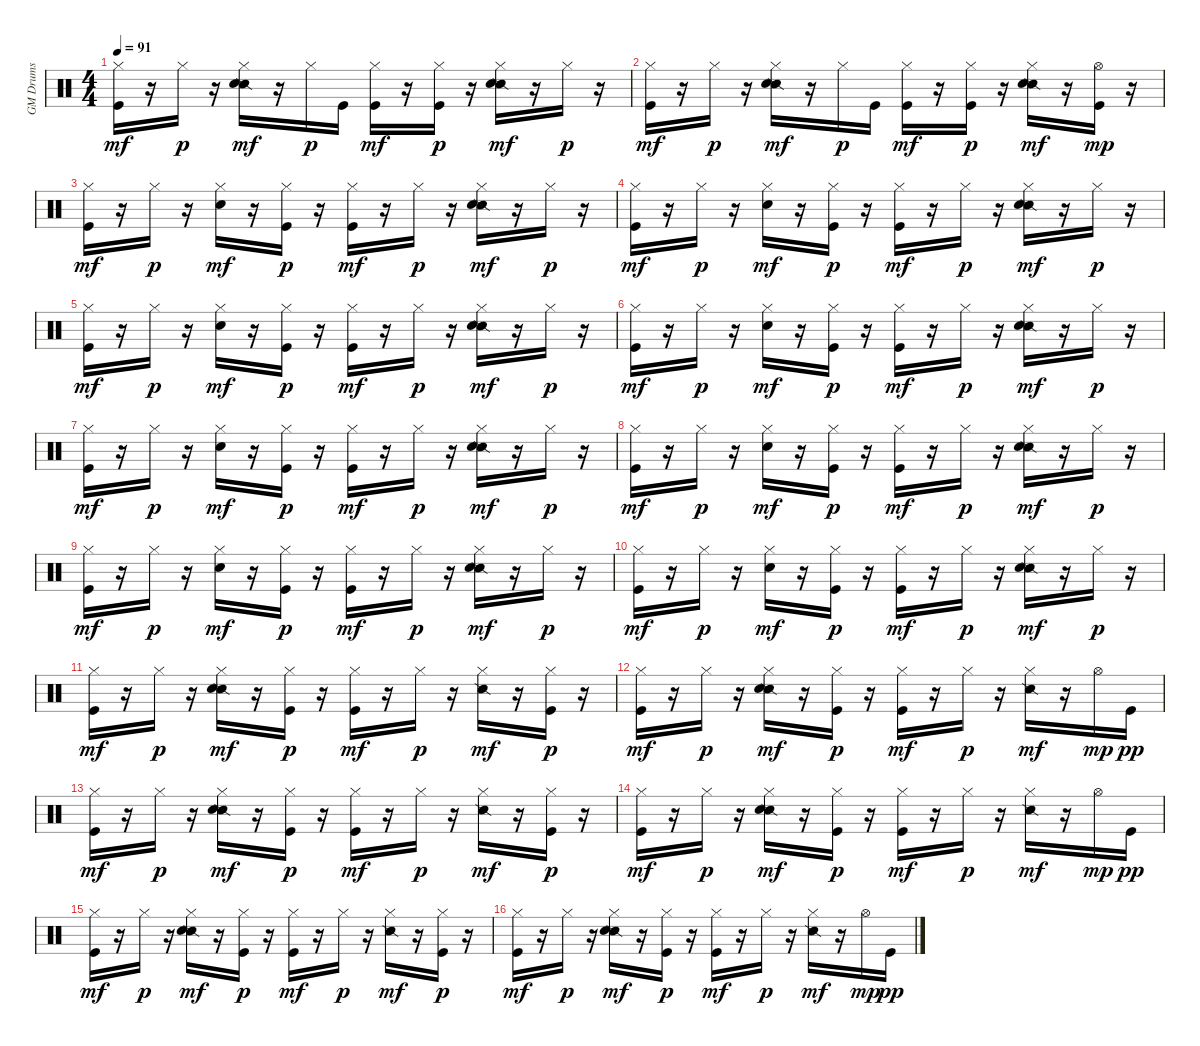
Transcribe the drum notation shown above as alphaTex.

\track ("GM Drums" "GM Drums") {instrument percussion}
\staff {score}
\articulation defaults
\ts (4 4)
\tempo 91
\clef neutral
\ks c
("Kick (hit)" "Hi-Hat (closed)").16{dy mf} r.16 "Hi-Hat (closed)".16{dy p} r.16 ("Snare (side stick) 2" "Electric Snare (hit)" "Hi-Hat (closed)").16{dy mf} r.16 "Hi-Hat (closed)".16{dy p} "Kick (hit)".16 ("Kick (hit)" "Hi-Hat (closed)").16{dy mf} r.16 ("Kick (hit)" "Hi-Hat (closed)").16{dy p} r.16 ("Snare (side stick) 2" "Electric Snare (hit)" "Hi-Hat (closed)").16{dy mf} r.16 "Hi-Hat (closed)".16{dy p} r.16 |
("Kick (hit)" "Hi-Hat (closed)").16{dy mf} r.16 "Hi-Hat (closed)".16{dy p} r.16 ("Snare (side stick) 2" "Electric Snare (hit)" "Hi-Hat (closed)").16{dy mf} r.16 "Hi-Hat (closed)".16{dy p} "Kick (hit)".16 ("Kick (hit)" "Hi-Hat (closed)").16{dy mf} r.16 ("Kick (hit)" "Hi-Hat (closed)").16{dy p} r.16 ("Snare (side stick) 2" "Electric Snare (hit)" "Hi-Hat (closed)").16{dy mf} r.16 ("Kick (hit)" "Hi-Hat (open)").16{dy mp} r.16 |
("Kick (hit)" "Hi-Hat (closed)").16{dy mf} r.16 "Hi-Hat (closed)".16{dy p} r.16 ("Electric Snare (hit)" "Hi-Hat (closed)").16{dy mf} r.16 ("Kick (hit)" "Hi-Hat (closed)").16{dy p} r.16 ("Kick (hit)" "Hi-Hat (closed)").16{dy mf} r.16 "Hi-Hat (closed)".16{dy p} r.16 ("Snare (side stick) 2" "Electric Snare (hit)" "Hi-Hat (closed)").16{dy mf} r.16 "Hi-Hat (closed)".16{dy p} r.16 |
("Kick (hit)" "Hi-Hat (closed)").16{dy mf} r.16 "Hi-Hat (closed)".16{dy p} r.16 ("Electric Snare (hit)" "Hi-Hat (closed)").16{dy mf} r.16 ("Kick (hit)" "Hi-Hat (closed)").16{dy p} r.16 ("Kick (hit)" "Hi-Hat (closed)").16{dy mf} r.16 "Hi-Hat (closed)".16{dy p} r.16 ("Snare (side stick) 2" "Electric Snare (hit)" "Hi-Hat (closed)").16{dy mf} r.16 "Hi-Hat (closed)".16{dy p} r.16 |
("Kick (hit)" "Hi-Hat (closed)").16{dy mf} r.16 "Hi-Hat (closed)".16{dy p} r.16 ("Electric Snare (hit)" "Hi-Hat (closed)").16{dy mf} r.16 ("Kick (hit)" "Hi-Hat (closed)").16{dy p} r.16 ("Kick (hit)" "Hi-Hat (closed)").16{dy mf} r.16 "Hi-Hat (closed)".16{dy p} r.16 ("Snare (side stick) 2" "Electric Snare (hit)" "Hi-Hat (closed)").16{dy mf} r.16 "Hi-Hat (closed)".16{dy p} r.16 |
("Kick (hit)" "Hi-Hat (closed)").16{dy mf} r.16 "Hi-Hat (closed)".16{dy p} r.16 ("Electric Snare (hit)" "Hi-Hat (closed)").16{dy mf} r.16 ("Kick (hit)" "Hi-Hat (closed)").16{dy p} r.16 ("Kick (hit)" "Hi-Hat (closed)").16{dy mf} r.16 "Hi-Hat (closed)".16{dy p} r.16 ("Snare (side stick) 2" "Electric Snare (hit)" "Hi-Hat (closed)").16{dy mf} r.16 "Hi-Hat (closed)".16{dy p} r.16 |
("Kick (hit)" "Hi-Hat (closed)").16{dy mf} r.16 "Hi-Hat (closed)".16{dy p} r.16 ("Electric Snare (hit)" "Hi-Hat (closed)").16{dy mf} r.16 ("Kick (hit)" "Hi-Hat (closed)").16{dy p} r.16 ("Kick (hit)" "Hi-Hat (closed)").16{dy mf} r.16 "Hi-Hat (closed)".16{dy p} r.16 ("Snare (side stick) 2" "Electric Snare (hit)" "Hi-Hat (closed)").16{dy mf} r.16 "Hi-Hat (closed)".16{dy p} r.16 |
("Kick (hit)" "Hi-Hat (closed)").16{dy mf} r.16 "Hi-Hat (closed)".16{dy p} r.16 ("Electric Snare (hit)" "Hi-Hat (closed)").16{dy mf} r.16 ("Kick (hit)" "Hi-Hat (closed)").16{dy p} r.16 ("Kick (hit)" "Hi-Hat (closed)").16{dy mf} r.16 "Hi-Hat (closed)".16{dy p} r.16 ("Snare (side stick) 2" "Electric Snare (hit)" "Hi-Hat (closed)").16{dy mf} r.16 "Hi-Hat (closed)".16{dy p} r.16 |
("Kick (hit)" "Hi-Hat (closed)").16{dy mf} r.16 "Hi-Hat (closed)".16{dy p} r.16 ("Electric Snare (hit)" "Hi-Hat (closed)").16{dy mf} r.16 ("Kick (hit)" "Hi-Hat (closed)").16{dy p} r.16 ("Kick (hit)" "Hi-Hat (closed)").16{dy mf} r.16 "Hi-Hat (closed)".16{dy p} r.16 ("Snare (side stick) 2" "Electric Snare (hit)" "Hi-Hat (closed)").16{dy mf} r.16 "Hi-Hat (closed)".16{dy p} r.16 |
("Kick (hit)" "Hi-Hat (closed)").16{dy mf} r.16 "Hi-Hat (closed)".16{dy p} r.16 ("Electric Snare (hit)" "Hi-Hat (closed)").16{dy mf} r.16 ("Kick (hit)" "Hi-Hat (closed)").16{dy p} r.16 ("Kick (hit)" "Hi-Hat (closed)").16{dy mf} r.16 "Hi-Hat (closed)".16{dy p} r.16 ("Snare (side stick) 2" "Electric Snare (hit)" "Hi-Hat (closed)").16{dy mf} r.16 "Hi-Hat (closed)".16{dy p} r.16 |
("Kick (hit)" "Hi-Hat (closed)").16{dy mf} r.16 "Hi-Hat (closed)".16{dy p} r.16 ("Snare (side stick) 2" "Electric Snare (hit)" "Hi-Hat (closed)").16{dy mf} r.16 ("Kick (hit)" "Hi-Hat (closed)").16{dy p} r.16 ("Kick (hit)" "Hi-Hat (closed)").16{dy mf} r.16 "Hi-Hat (closed)".16{dy p} r.16 ("Snare (side stick) 2" "Hi-Hat (closed)").16{dy mf} r.16 ("Kick (hit)" "Hi-Hat (closed)").16{dy p} r.16 |
("Kick (hit)" "Hi-Hat (closed)").16{dy mf} r.16 "Hi-Hat (closed)".16{dy p} r.16 ("Snare (side stick) 2" "Electric Snare (hit)" "Hi-Hat (closed)").16{dy mf} r.16 ("Kick (hit)" "Hi-Hat (closed)").16{dy p} r.16 ("Kick (hit)" "Hi-Hat (closed)").16{dy mf} r.16 "Hi-Hat (closed)".16{dy p} r.16 ("Snare (side stick) 2" "Hi-Hat (closed)").16{dy mf} r.16 "Hi-Hat (open)".16{dy mp} "Kick (hit)".16{dy pp} |
("Kick (hit)" "Hi-Hat (closed)").16{dy mf} r.16 "Hi-Hat (closed)".16{dy p} r.16 ("Snare (side stick) 2" "Electric Snare (hit)" "Hi-Hat (closed)").16{dy mf} r.16 ("Kick (hit)" "Hi-Hat (closed)").16{dy p} r.16 ("Kick (hit)" "Hi-Hat (closed)").16{dy mf} r.16 "Hi-Hat (closed)".16{dy p} r.16 ("Snare (side stick) 2" "Hi-Hat (closed)").16{dy mf} r.16 ("Kick (hit)" "Hi-Hat (closed)").16{dy p} r.16 |
("Kick (hit)" "Hi-Hat (closed)").16{dy mf} r.16 "Hi-Hat (closed)".16{dy p} r.16 ("Snare (side stick) 2" "Electric Snare (hit)" "Hi-Hat (closed)").16{dy mf} r.16 ("Kick (hit)" "Hi-Hat (closed)").16{dy p} r.16 ("Kick (hit)" "Hi-Hat (closed)").16{dy mf} r.16 "Hi-Hat (closed)".16{dy p} r.16 ("Snare (side stick) 2" "Hi-Hat (closed)").16{dy mf} r.16 "Hi-Hat (open)".16{dy mp} "Kick (hit)".16{dy pp} |
("Kick (hit)" "Hi-Hat (closed)").16{dy mf} r.16 "Hi-Hat (closed)".16{dy p} r.16 ("Snare (side stick) 2" "Electric Snare (hit)" "Hi-Hat (closed)").16{dy mf} r.16 ("Kick (hit)" "Hi-Hat (closed)").16{dy p} r.16 ("Kick (hit)" "Hi-Hat (closed)").16{dy mf} r.16 "Hi-Hat (closed)".16{dy p} r.16 ("Snare (side stick) 2" "Hi-Hat (closed)").16{dy mf} r.16 ("Kick (hit)" "Hi-Hat (closed)").16{dy p} r.16 |
("Kick (hit)" "Hi-Hat (closed)").16{dy mf} r.16 "Hi-Hat (closed)".16{dy p} r.16 ("Snare (side stick) 2" "Electric Snare (hit)" "Hi-Hat (closed)").16{dy mf} r.16 ("Kick (hit)" "Hi-Hat (closed)").16{dy p} r.16 ("Kick (hit)" "Hi-Hat (closed)").16{dy mf} r.16 "Hi-Hat (closed)".16{dy p} r.16 ("Snare (side stick) 2" "Hi-Hat (closed)").16{dy mf} r.16 "Hi-Hat (open)".16{dy mp} "Kick (hit)".16{dy pp}
